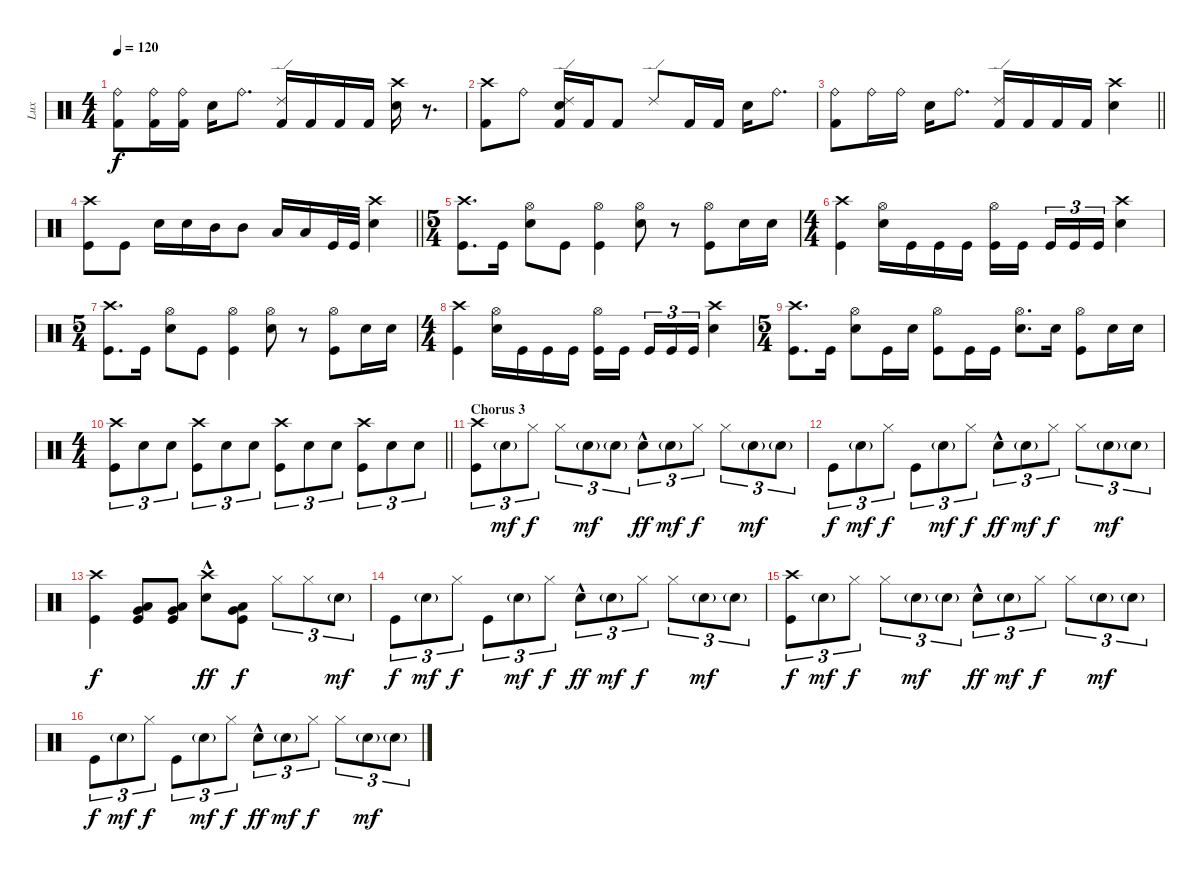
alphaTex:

\track ("Lux" "Lux") {instrument percussion bank 32}
\staff {score}
\articulation defaults
\ts (4 4)
\tempo 120
\clef neutral
\ks c
("Ride (bell)" "Kick (hit) 2").8{dy f} ("Ride (bell)" "Kick (hit) 2").16 ("Ride (bell)" "Kick (hit) 2").16 "Snare (hit) 2".16 "Ride (bell)".8{d} ("Ride (edge) 2" "Kick (hit) 2").16 "Kick (hit) 2".16 "Kick (hit) 2".16 "Kick (hit) 2".16 ("Crash high (hit)" "Snare (hit) 2").16 r.8{d} |
("Crash high (hit)" "Kick (hit) 2").8 "Ride (bell)".8 ("Ride (edge) 2" "Snare (hit) 2" "Kick (hit) 2").16 "Kick (hit) 2".16 "Kick (hit) 2".8 "Ride (edge) 2".8 "Kick (hit) 2".16 "Kick (hit) 2".16 "Snare (hit) 2".16 "Ride (bell)".8{d} |
\barLineRight lightlight
("Ride (bell)" "Kick (hit) 2").8 "Ride (bell)".16 "Ride (bell)".16 "Snare (hit) 2".16 "Ride (bell)".8{d} ("Ride (edge) 2" "Kick (hit) 2").16 "Kick (hit) 2".16 "Kick (hit) 2".16 "Kick (hit) 2".16 ("Crash high (hit)" "Snare (hit) 2").4 |
\barLineRight lightlight
("Crash high (hit)" "Kick (hit)").8 "Kick (hit)".8 "Snare (hit) 2".16 "Snare (hit) 2".16 "Mid Tom (hit)".16 "Mid Tom (hit)".8 "Low Tom (hit)".16 "Low Tom (hit)".16 "Kick (hit)".32 "Kick (hit)".32 ("Crash high (hit)" "Snare (hit) 2").4 |
\ts (5 4)
("Crash high (hit)" "Kick (hit)").8{d} "Kick (hit)".16 ("Hi-Hat (open)" "Snare (hit) 2").8 "Kick (hit)".8 ("Hi-Hat (open)" "Kick (hit)").4 ("Hi-Hat (open)" "Snare (hit) 2").8 r.8 ("Hi-Hat (open)" "Kick (hit)").8 "Snare (hit) 2".16 "Snare (hit) 2".16 |
\ts (4 4)
("Crash high (hit)" "Kick (hit)").4 ("Hi-Hat (open)" "Snare (hit) 2").16 "Kick (hit)".16 "Kick (hit)".16 "Kick (hit)".16 ("Hi-Hat (open)" "Kick (hit)").16 "Kick (hit)".16{beam splitsecondary} "Kick (hit)".16{tu (3 2)} "Kick (hit)".16{tu (3 2)} "Kick (hit)".16{tu (3 2)} ("Crash high (hit)" "Snare (hit) 2").4 |
\ts (5 4)
("Crash high (hit)" "Kick (hit)").8{d} "Kick (hit)".16 ("Hi-Hat (open)" "Snare (hit) 2").8 "Kick (hit)".8 ("Hi-Hat (open)" "Kick (hit)").4 ("Hi-Hat (open)" "Snare (hit) 2").8 r.8 ("Hi-Hat (open)" "Kick (hit)").8 "Snare (hit) 2".16 "Snare (hit) 2".16 |
\ts (4 4)
("Crash high (hit)" "Kick (hit)").4 ("Hi-Hat (open)" "Snare (hit) 2").16 "Kick (hit)".16 "Kick (hit)".16 "Kick (hit)".16 ("Hi-Hat (open)" "Kick (hit)").16 "Kick (hit)".16{beam splitsecondary} "Kick (hit)".16{tu (3 2)} "Kick (hit)".16{tu (3 2)} "Kick (hit)".16{tu (3 2)} ("Crash high (hit)" "Snare (hit) 2").4 |
\ts (5 4)
("Crash high (hit)" "Kick (hit)").8{d} "Kick (hit)".16 ("Hi-Hat (open)" "Snare (hit) 2").8 "Kick (hit)".16 "Snare (hit) 2".16 ("Hi-Hat (open)" "Kick (hit)").8 "Kick (hit)".16 "Kick (hit)".16 ("Hi-Hat (open)" "Snare (hit) 2").8{d} "Snare (hit) 2".16 ("Hi-Hat (open)" "Kick (hit)").8 "Snare (hit) 2".16 "Snare (hit) 2".16 |
\ts (4 4)
\barLineRight lightlight
("Crash high (hit)" "Kick (hit)").8{tu (3 2)} "Snare (hit) 2".8{tu (3 2)} "Snare (hit) 2".8{tu (3 2)} ("Crash high (hit)" "Kick (hit)").8{tu (3 2)} "Snare (hit) 2".8{tu (3 2)} "Snare (hit) 2".8{tu (3 2)} ("Crash high (hit)" "Kick (hit)").8{tu (3 2)} "Snare (hit) 2".8{tu (3 2)} "Snare (hit) 2".8{tu (3 2)} ("Crash high (hit)" "Kick (hit)").8{tu (3 2)} "Snare (hit) 2".8{tu (3 2)} "Snare (hit) 2".8{tu (3 2)} |
\section ("" "Chorus 3")
("Crash high (hit)" "Kick (hit)").8{tu (3 2)} "Snare (hit) 2"{g}.8{tu (3 2) dy mf} "Hi-Hat (closed)".8{tu (3 2) dy f} "Hi-Hat (closed)".8{tu (3 2)} "Snare (hit) 2"{g}.8{tu (3 2) dy mf} "Snare (hit) 2"{g}.8{tu (3 2)} "Snare (hit) 2"{hac}.8{tu (3 2) dy ff} "Snare (hit) 2"{g}.8{tu (3 2) dy mf} "Hi-Hat (closed)".8{tu (3 2) dy f} "Hi-Hat (closed)".8{tu (3 2)} "Snare (hit) 2"{g}.8{tu (3 2) dy mf} "Snare (hit) 2"{g}.8{tu (3 2)} |
"Kick (hit)".8{tu (3 2) dy f} "Snare (hit) 2"{g}.8{tu (3 2) dy mf} "Hi-Hat (closed)".8{tu (3 2) dy f} "Kick (hit)".8{tu (3 2)} "Snare (hit) 2"{g}.8{tu (3 2) dy mf} "Hi-Hat (closed)".8{tu (3 2) dy f} "Snare (hit) 2"{hac}.8{tu (3 2) dy ff} "Snare (hit) 2"{g}.8{tu (3 2) dy mf} "Hi-Hat (closed)".8{tu (3 2) dy f} "Hi-Hat (closed)".8{tu (3 2)} "Snare (hit) 2"{g}.8{tu (3 2) dy mf} "Snare (hit) 2"{g}.8{tu (3 2)} |
("Crash high (hit)" "Kick (hit)").4{dy f} ("Low Tom (hit)" "Very Low Tom (hit)" "Kick (hit)").8 ("Low Tom (hit)" "Very Low Tom (hit)" "Kick (hit)").8 ("Crash high (hit)" "Snare (hit) 2"{hac}).8{dy ff} ("Low Tom (hit)" "Very Low Tom (hit)" "Kick (hit)").8{dy f} "Hi-Hat (closed)".8{tu (3 2)} "Hi-Hat (closed)".8{tu (3 2)} "Snare (hit) 2"{g}.8{tu (3 2) dy mf} |
"Kick (hit)".8{tu (3 2) dy f} "Snare (hit) 2"{g}.8{tu (3 2) dy mf} "Hi-Hat (closed)".8{tu (3 2) dy f} "Kick (hit)".8{tu (3 2)} "Snare (hit) 2"{g}.8{tu (3 2) dy mf} "Hi-Hat (closed)".8{tu (3 2) dy f} "Snare (hit) 2"{hac}.8{tu (3 2) dy ff} "Snare (hit) 2"{g}.8{tu (3 2) dy mf} "Hi-Hat (closed)".8{tu (3 2) dy f} "Hi-Hat (closed)".8{tu (3 2)} "Snare (hit) 2"{g}.8{tu (3 2) dy mf} "Snare (hit) 2"{g}.8{tu (3 2)} |
("Crash high (hit)" "Kick (hit)").8{tu (3 2) dy f} "Snare (hit) 2"{g}.8{tu (3 2) dy mf} "Hi-Hat (closed)".8{tu (3 2) dy f} "Hi-Hat (closed)".8{tu (3 2)} "Snare (hit) 2"{g}.8{tu (3 2) dy mf} "Snare (hit) 2"{g}.8{tu (3 2)} "Snare (hit) 2"{hac}.8{tu (3 2) dy ff} "Snare (hit) 2"{g}.8{tu (3 2) dy mf} "Hi-Hat (closed)".8{tu (3 2) dy f} "Hi-Hat (closed)".8{tu (3 2)} "Snare (hit) 2"{g}.8{tu (3 2) dy mf} "Snare (hit) 2"{g}.8{tu (3 2)} |
"Kick (hit)".8{tu (3 2) dy f} "Snare (hit) 2"{g}.8{tu (3 2) dy mf} "Hi-Hat (closed)".8{tu (3 2) dy f} "Kick (hit)".8{tu (3 2)} "Snare (hit) 2"{g}.8{tu (3 2) dy mf} "Hi-Hat (closed)".8{tu (3 2) dy f} "Snare (hit) 2"{hac}.8{tu (3 2) dy ff} "Snare (hit) 2"{g}.8{tu (3 2) dy mf} "Hi-Hat (closed)".8{tu (3 2) dy f} "Hi-Hat (closed)".8{tu (3 2)} "Snare (hit) 2"{g}.8{tu (3 2) dy mf} "Snare (hit) 2"{g}.8{tu (3 2)}
